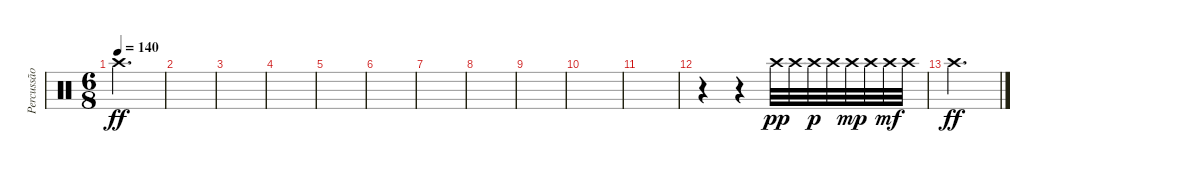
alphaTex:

\track ("Percussão" "Percussão") {instrument percussion}
\staff {score}
\articulation defaults
\ts (6 8)
\tempo 140
\clef neutral
\ks c "Crash high (hit)".2{d dy ff}
|
|
|
|
|
|
|
|
|
|
|
r.4 r.4 "Crash high (hit)".32{dy pp} "Crash high (hit)".32 "Crash high (hit)".32{dy p} "Crash high (hit)".32 "Crash high (hit)".32{dy mp} "Crash high (hit)".32 "Crash high (hit)".32{dy mf} "Crash high (hit)".32 |
"Crash high (hit)".2{d dy ff}
